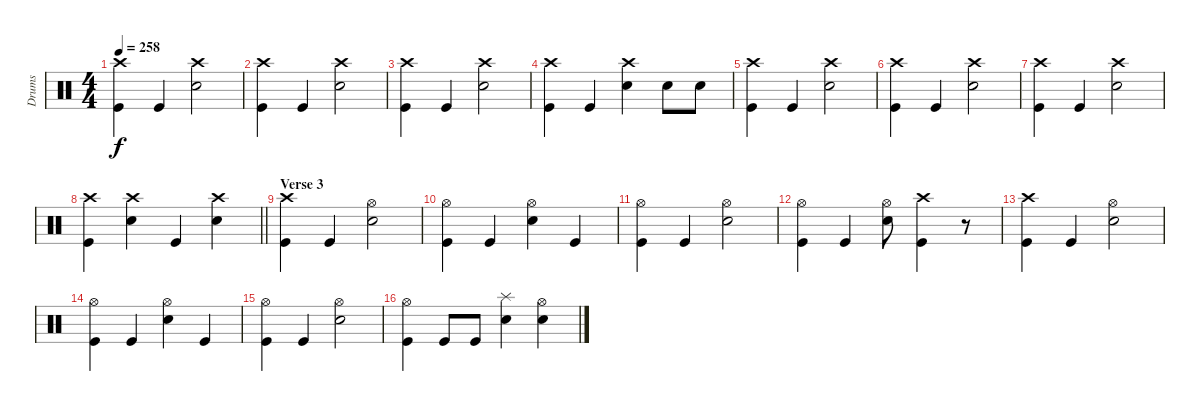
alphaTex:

\track ("Drums" "Drums") {instrument percussion}
\staff {score}
\articulation defaults
\ts (4 4)
\tempo 258
\clef neutral
\ks c
("Crash high (hit)" "Kick (hit)").4{dy f} "Kick (hit)".4 ("Crash high (hit)" "Electric Snare (hit)").2 |
("Crash high (hit)" "Kick (hit)").4 "Kick (hit)".4 ("Crash high (hit)" "Electric Snare (hit)").2 |
("Crash high (hit)" "Kick (hit)").4 "Kick (hit)".4 ("Crash high (hit)" "Electric Snare (hit)").2 |
("Crash high (hit)" "Kick (hit)").4 "Kick (hit)".4 ("Crash high (hit)" "Electric Snare (hit)").4 "Electric Snare (hit)".8 "Electric Snare (hit)".8 |
("Crash high (hit)" "Kick (hit)").4 "Kick (hit)".4 ("Crash high (hit)" "Electric Snare (hit)").2 |
("Crash high (hit)" "Kick (hit)").4 "Kick (hit)".4 ("Crash high (hit)" "Electric Snare (hit)").2 |
("Crash high (hit)" "Kick (hit)").4 "Kick (hit)".4 ("Crash high (hit)" "Electric Snare (hit)").2 |
\barLineRight lightlight
("Crash high (hit)" "Kick (hit)").4 ("Crash high (hit)" "Electric Snare (hit)").4 "Kick (hit)".4 ("Crash high (hit)" "Electric Snare (hit)").4 |
\section ("" "Verse 3")
("Crash high (hit)" "Kick (hit)").4 "Kick (hit)".4 ("Hi-Hat (open)" "Electric Snare (hit)").2 |
("Hi-Hat (open)" "Kick (hit)").4 "Kick (hit)".4 ("Hi-Hat (open)" "Electric Snare (hit)").4 "Kick (hit)".4 |
("Hi-Hat (open)" "Kick (hit)").4 "Kick (hit)".4 ("Hi-Hat (open)" "Electric Snare (hit)").2 |
("Hi-Hat (open)" "Kick (hit)").4 "Kick (hit)".4 ("Hi-Hat (open)" "Electric Snare (hit)").8 ("Crash high (hit)" "Kick (hit)").4 r.8 |
("Crash high (hit)" "Kick (hit)").4 "Kick (hit)".4 ("Hi-Hat (open)" "Electric Snare (hit)").2 |
("Hi-Hat (open)" "Kick (hit)").4 "Kick (hit)".4 ("Hi-Hat (open)" "Electric Snare (hit)").4 "Kick (hit)".4 |
("Hi-Hat (open)" "Kick (hit)").4 "Kick (hit)".4 ("Hi-Hat (open)" "Electric Snare (hit)").2 |
("Hi-Hat (open)" "Kick (hit)").4 "Kick (hit)".8 "Kick (hit)".8 ("Splash (hit)" "Electric Snare (hit)").4 ("Hi-Hat (open)" "Electric Snare (hit)").4
